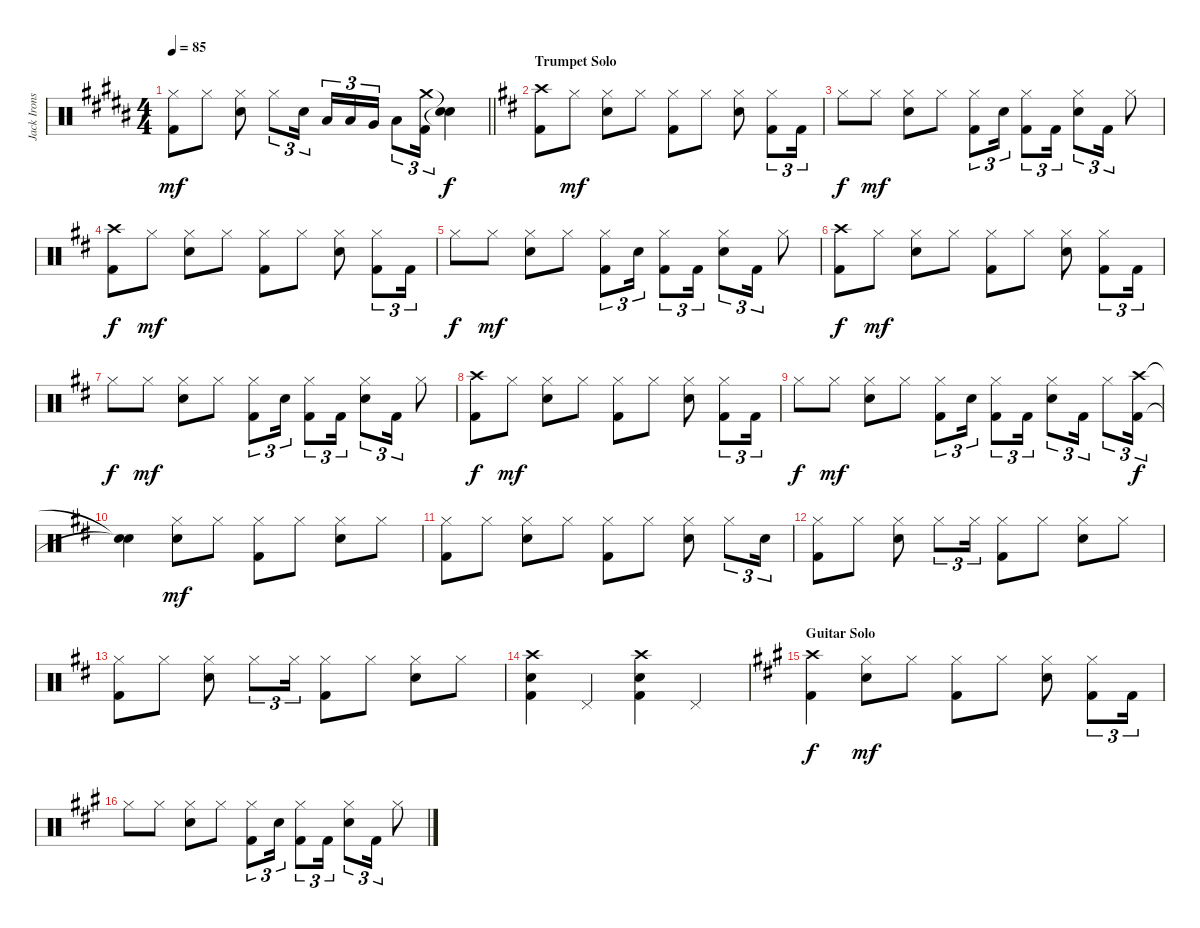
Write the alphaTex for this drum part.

\track ("Jack Irons" "Jack Irons") {instrument percussion}
\staff {score}
\articulation defaults
\ts (4 4)
\tempo 85
\clef neutral
\barLineRight lightlight
\ks b
("Hi-Hat (closed)" "Kick (hit) 2").8{dy mf} "Hi-Hat (closed)".8 ("Hi-Hat (closed)" "Electric Snare (hit)").8 "Hi-Hat (closed)".8{tu (3 2)} "Electric Snare (hit)".16{tu (3 2)} "Low Tom (hit)".16{tu (3 2)} "Low Tom (hit)".16{tu (3 2)} "Very Low Tom (hit)".16{tu (3 2)} "Low Floor Tom (hit)".8{tu (3 2)} ("Crash medium (hit)" "Kick (hit) 2").16{tu (3 2)} ("Snare (hit)"{t} "Snare (hit)"{t}).4{dy f} |
\section ("" "Trumpet Solo")
\ks d
("Crash high (hit)" "Kick (hit) 2").8 "Hi-Hat (closed)".8{dy mf} ("Hi-Hat (closed)" "Electric Snare (hit)").8 "Hi-Hat (closed)".8 ("Hi-Hat (closed)" "Kick (hit) 2").8 "Hi-Hat (closed)".8 ("Hi-Hat (closed)" "Electric Snare (hit)").8 ("Hi-Hat (closed)" "Kick (hit) 2").8{tu (3 2)} "Kick (hit) 2".16{tu (3 2)} |
"Hi-Hat (closed)".8{dy f} "Hi-Hat (closed)".8{dy mf} ("Hi-Hat (closed)" "Electric Snare (hit)").8 "Hi-Hat (closed)".8 ("Hi-Hat (closed)" "Kick (hit) 2").8{tu (3 2)} "Electric Snare (hit)".16{tu (3 2)} ("Hi-Hat (closed)" "Kick (hit) 2").8{tu (3 2)} "Kick (hit) 2".16{tu (3 2)} ("Hi-Hat (closed)" "Electric Snare (hit)").8{tu (3 2)} "Kick (hit) 2".16{tu (3 2)} "Hi-Hat (closed)".8 |
("Crash high (hit)" "Kick (hit) 2").8{dy f} "Hi-Hat (closed)".8{dy mf} ("Hi-Hat (closed)" "Electric Snare (hit)").8 "Hi-Hat (closed)".8 ("Hi-Hat (closed)" "Kick (hit) 2").8 "Hi-Hat (closed)".8 ("Hi-Hat (closed)" "Electric Snare (hit)").8 ("Hi-Hat (closed)" "Kick (hit) 2").8{tu (3 2)} "Kick (hit) 2".16{tu (3 2)} |
"Hi-Hat (closed)".8{dy f} "Hi-Hat (closed)".8{dy mf} ("Hi-Hat (closed)" "Electric Snare (hit)").8 "Hi-Hat (closed)".8 ("Hi-Hat (closed)" "Kick (hit) 2").8{tu (3 2)} "Electric Snare (hit)".16{tu (3 2)} ("Hi-Hat (closed)" "Kick (hit) 2").8{tu (3 2)} "Kick (hit) 2".16{tu (3 2)} ("Hi-Hat (closed)" "Electric Snare (hit)").8{tu (3 2)} "Kick (hit) 2".16{tu (3 2)} "Hi-Hat (closed)".8 |
("Crash high (hit)" "Kick (hit) 2").8{dy f} "Hi-Hat (closed)".8{dy mf} ("Hi-Hat (closed)" "Electric Snare (hit)").8 "Hi-Hat (closed)".8 ("Hi-Hat (closed)" "Kick (hit) 2").8 "Hi-Hat (closed)".8 ("Hi-Hat (closed)" "Electric Snare (hit)").8 ("Hi-Hat (closed)" "Kick (hit) 2").8{tu (3 2)} "Kick (hit) 2".16{tu (3 2)} |
"Hi-Hat (closed)".8{dy f} "Hi-Hat (closed)".8{dy mf} ("Hi-Hat (closed)" "Electric Snare (hit)").8 "Hi-Hat (closed)".8 ("Hi-Hat (closed)" "Kick (hit) 2").8{tu (3 2)} "Electric Snare (hit)".16{tu (3 2)} ("Hi-Hat (closed)" "Kick (hit) 2").8{tu (3 2)} "Kick (hit) 2".16{tu (3 2)} ("Hi-Hat (closed)" "Electric Snare (hit)").8{tu (3 2)} "Kick (hit) 2".16{tu (3 2)} "Hi-Hat (closed)".8 |
("Crash high (hit)" "Kick (hit) 2").8{dy f} "Hi-Hat (closed)".8{dy mf} ("Hi-Hat (closed)" "Electric Snare (hit)").8 "Hi-Hat (closed)".8 ("Hi-Hat (closed)" "Kick (hit) 2").8 "Hi-Hat (closed)".8 ("Hi-Hat (closed)" "Electric Snare (hit)").8 ("Hi-Hat (closed)" "Kick (hit) 2").8{tu (3 2)} "Kick (hit) 2".16{tu (3 2)} |
"Hi-Hat (closed)".8{dy f} "Hi-Hat (closed)".8{dy mf} ("Hi-Hat (closed)" "Electric Snare (hit)").8 "Hi-Hat (closed)".8 ("Hi-Hat (closed)" "Kick (hit) 2").8{tu (3 2)} "Electric Snare (hit)".16{tu (3 2)} ("Hi-Hat (closed)" "Kick (hit) 2").8{tu (3 2)} "Kick (hit) 2".16{tu (3 2)} ("Hi-Hat (closed)" "Electric Snare (hit)").8{tu (3 2)} "Kick (hit) 2".16{tu (3 2)} "Hi-Hat (closed)".8{tu (3 2)} ("Crash high (hit)" "Kick (hit) 2").16{tu (3 2) dy f} |
("Snare (hit)"{t} "Snare (hit)"{t}).4 ("Hi-Hat (closed)" "Electric Snare (hit)").8{dy mf} "Hi-Hat (closed)".8 ("Hi-Hat (closed)" "Kick (hit) 2").8 "Hi-Hat (closed)".8 ("Hi-Hat (closed)" "Electric Snare (hit)").8 "Hi-Hat (closed)".8 |
("Hi-Hat (closed)" "Kick (hit) 2").8 "Hi-Hat (closed)".8 ("Hi-Hat (closed)" "Electric Snare (hit)").8 "Hi-Hat (closed)".8 ("Hi-Hat (closed)" "Kick (hit) 2").8 "Hi-Hat (closed)".8 ("Hi-Hat (closed)" "Electric Snare (hit)").8 "Hi-Hat (closed)".8{tu (3 2)} "Electric Snare (hit)".16{tu (3 2)} |
("Hi-Hat (closed)" "Kick (hit) 2").8 "Hi-Hat (closed)".8 ("Hi-Hat (closed)" "Electric Snare (hit)").8 "Hi-Hat (closed)".8{tu (3 2)} "Hi-Hat (closed)".16{tu (3 2)} ("Hi-Hat (closed)" "Kick (hit) 2").8 "Hi-Hat (closed)".8 ("Hi-Hat (closed)" "Electric Snare (hit)").8 "Hi-Hat (closed)".8 |
("Hi-Hat (closed)" "Kick (hit) 2").8 "Hi-Hat (closed)".8 ("Hi-Hat (closed)" "Electric Snare (hit)").8 "Hi-Hat (closed)".8{tu (3 2)} "Hi-Hat (closed)".16{tu (3 2)} ("Hi-Hat (closed)" "Kick (hit) 2").8 "Hi-Hat (closed)".8 ("Hi-Hat (closed)" "Electric Snare (hit)").8 "Hi-Hat (closed)".8 |
("Crash high (hit)" "Snare (hit) 2" "Kick (hit) 2").4 "Pedal Hi-Hat (hit)".4 ("Crash high (hit)" "Snare (hit) 2" "Kick (hit) 2").4 "Pedal Hi-Hat (hit)".4 |
\section ("" "Guitar Solo")
\ks a
("Crash high (hit)" "Kick (hit) 2").4{dy f} ("Hi-Hat (closed)" "Electric Snare (hit)").8{dy mf} "Hi-Hat (closed)".8 ("Hi-Hat (closed)" "Kick (hit) 2").8 "Hi-Hat (closed)".8 ("Hi-Hat (closed)" "Electric Snare (hit)").8 ("Hi-Hat (closed)" "Kick (hit) 2").8{tu (3 2)} "Kick (hit) 2".16{tu (3 2)} |
"Hi-Hat (closed)".8 "Hi-Hat (closed)".8 ("Hi-Hat (closed)" "Electric Snare (hit)").8 "Hi-Hat (closed)".8 ("Hi-Hat (closed)" "Kick (hit) 2").8{tu (3 2)} "Electric Snare (hit)".16{tu (3 2)} ("Hi-Hat (closed)" "Kick (hit) 2").8{tu (3 2)} "Kick (hit) 2".16{tu (3 2)} ("Hi-Hat (closed)" "Electric Snare (hit)").8{tu (3 2)} "Kick (hit) 2".16{tu (3 2)} "Hi-Hat (closed)".8
